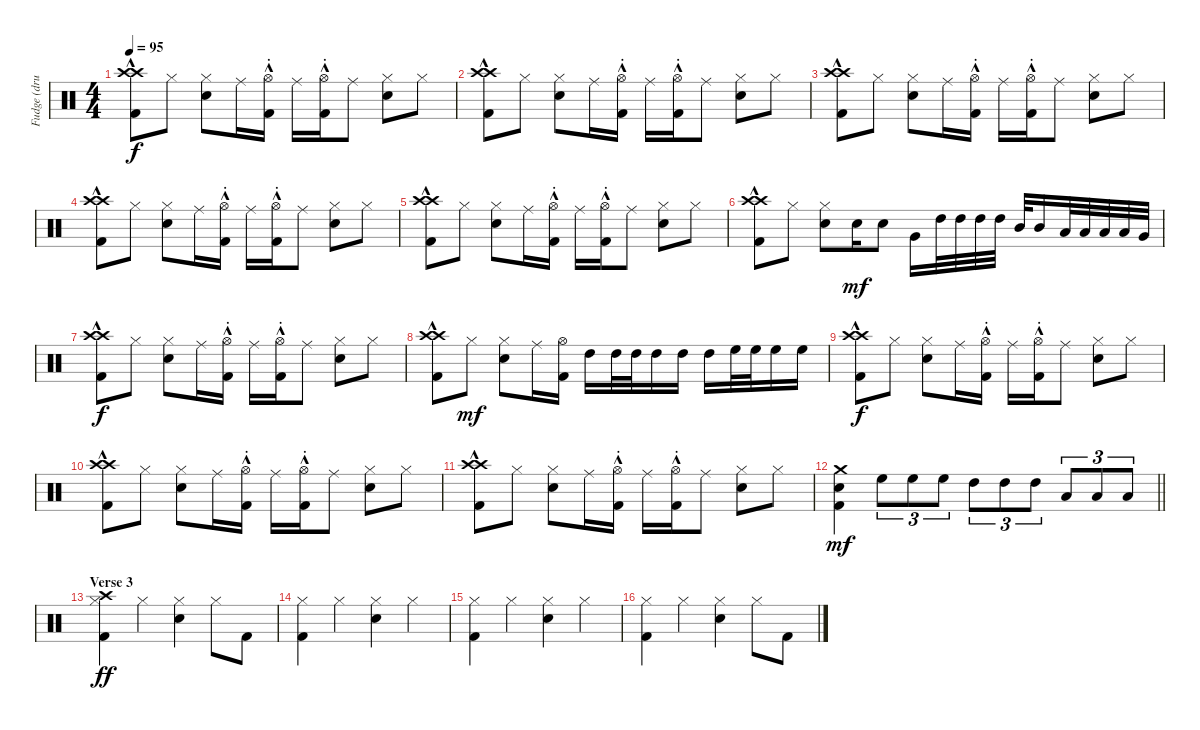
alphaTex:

\track ("Fudge (drums)" "Fudge (dru") {instrument percussion}
\staff {score}
\articulation defaults
\ts (4 4)
\tempo 95
\clef neutral
\ks c
("Kick (hit) 2"{hac} "Crash high (hit)" "Crash high (hit)").8{dy f} "Hi-Hat (closed)".8 ("Electric Snare (hit)" "Hi-Hat (closed)").8 "Ride (middle)".16 ("Kick (hit) 2"{hac} "Hi-Hat (open)"{hac st}).16 "Ride (middle)".16 ("Kick (hit) 2"{hac} "Hi-Hat (open)"{hac st}).16 "Ride (middle)".8 ("Electric Snare (hit)" "Hi-Hat (closed)").8 "Hi-Hat (closed)".8 |
("Kick (hit) 2"{hac} "Crash high (hit)" "Crash high (hit)").8 "Hi-Hat (closed)".8 ("Electric Snare (hit)" "Hi-Hat (closed)").8 "Ride (middle)".16 ("Kick (hit) 2"{hac} "Hi-Hat (open)"{hac st}).16 "Ride (middle)".16 ("Kick (hit) 2"{hac} "Hi-Hat (open)"{hac st}).16 "Ride (middle)".8 ("Electric Snare (hit)" "Hi-Hat (closed)").8 "Hi-Hat (closed)".8 |
("Kick (hit) 2"{hac} "Crash high (hit)" "Crash high (hit)").8 "Hi-Hat (closed)".8 ("Electric Snare (hit)" "Hi-Hat (closed)").8 "Ride (middle)".16 ("Kick (hit) 2"{hac} "Hi-Hat (open)"{hac st}).16 "Ride (middle)".16 ("Kick (hit) 2"{hac} "Hi-Hat (open)"{hac st}).16 "Ride (middle)".8 ("Electric Snare (hit)" "Hi-Hat (closed)").8 "Hi-Hat (closed)".8 |
("Kick (hit) 2"{hac} "Crash high (hit)" "Crash high (hit)").8 "Hi-Hat (closed)".8 ("Electric Snare (hit)" "Hi-Hat (closed)").8 "Ride (middle)".16 ("Kick (hit) 2"{hac} "Hi-Hat (open)"{hac st}).16 "Ride (middle)".16 ("Kick (hit) 2"{hac} "Hi-Hat (open)"{hac st}).16 "Ride (middle)".8 ("Electric Snare (hit)" "Hi-Hat (closed)").8 "Hi-Hat (closed)".8 |
("Kick (hit) 2"{hac} "Crash high (hit)" "Crash high (hit)").8 "Hi-Hat (closed)".8 ("Electric Snare (hit)" "Hi-Hat (closed)").8 "Ride (middle)".16 ("Kick (hit) 2"{hac} "Hi-Hat (open)"{hac st}).16 "Ride (middle)".16 ("Kick (hit) 2"{hac} "Hi-Hat (open)"{hac st}).16 "Ride (middle)".8 ("Electric Snare (hit)" "Hi-Hat (closed)").8 "Hi-Hat (closed)".8 |
("Kick (hit) 2"{hac} "Crash high (hit)" "Crash high (hit)").8 "Hi-Hat (closed)".8 ("Electric Snare (hit)" "Hi-Hat (closed)").8 "Snare (hit) 2".16{dy mf} "Snare (hit) 2".8 "Very Low Tom (hit)".16 "High Tom (hit)".32 "High Tom (hit)".32 "High Tom (hit)".32 "High Tom (hit)".32 "Mid Tom (hit)".32 "Mid Tom (hit)".16 "Low Tom (hit)".32 "Low Tom (hit)".32 "Low Tom (hit)".32 "Low Tom (hit)".32 "Very Low Tom (hit)".32 |
("Kick (hit) 2"{hac} "Crash high (hit)" "Crash high (hit)").8{dy f} "Hi-Hat (closed)".8 ("Electric Snare (hit)" "Hi-Hat (closed)").8 "Ride (middle)".16 ("Kick (hit) 2"{hac} "Hi-Hat (open)"{hac st}).16 "Ride (middle)".16 ("Kick (hit) 2"{hac} "Hi-Hat (open)"{hac st}).16 "Ride (middle)".8 ("Electric Snare (hit)" "Hi-Hat (closed)").8 "Hi-Hat (closed)".8 |
("Kick (hit) 2"{hac} "Crash high (hit)" "Crash high (hit)").8 "Hi-Hat (closed)".8{dy mf} ("Electric Snare (hit)" "Hi-Hat (closed)").8 "Ride (middle)".16 ("Kick (hit) 2" "Hi-Hat (open)").16 "High Tom (hit)".16 "High Tom (hit)".32 "High Tom (hit)".32 "High Tom (hit)".16 "High Tom (hit)".16 "High Tom (hit)".16 "High Floor Tom (hit)".32 "High Floor Tom (hit)".32 "High Floor Tom (hit)".16 "High Floor Tom (hit)".16 |
("Kick (hit) 2"{hac} "Crash high (hit)" "Crash high (hit)").8{dy f} "Hi-Hat (closed)".8 ("Electric Snare (hit)" "Hi-Hat (closed)").8 "Ride (middle)".16 ("Kick (hit) 2"{hac} "Hi-Hat (open)"{hac st}).16 "Ride (middle)".16 ("Kick (hit) 2"{hac} "Hi-Hat (open)"{hac st}).16 "Ride (middle)".8 ("Electric Snare (hit)" "Hi-Hat (closed)").8 "Hi-Hat (closed)".8 |
("Kick (hit) 2"{hac} "Crash high (hit)" "Crash high (hit)").8 "Hi-Hat (closed)".8 ("Electric Snare (hit)" "Hi-Hat (closed)").8 "Ride (middle)".16 ("Kick (hit) 2"{hac} "Hi-Hat (open)"{hac st}).16 "Ride (middle)".16 ("Kick (hit) 2"{hac} "Hi-Hat (open)"{hac st}).16 "Ride (middle)".8 ("Electric Snare (hit)" "Hi-Hat (closed)").8 "Hi-Hat (closed)".8 |
("Kick (hit) 2"{hac} "Crash high (hit)" "Crash high (hit)").8 "Hi-Hat (closed)".8 ("Electric Snare (hit)" "Hi-Hat (closed)").8 "Ride (middle)".16 ("Kick (hit) 2"{hac} "Hi-Hat (open)"{hac st}).16 "Ride (middle)".16 ("Kick (hit) 2"{hac} "Hi-Hat (open)"{hac st}).16 "Ride (middle)".8 ("Electric Snare (hit)" "Hi-Hat (closed)").8 "Hi-Hat (closed)".8 |
\barLineRight lightlight
("Kick (hit) 2" "Crash medium (hit)" "Electric Snare (hit)").4{dy mf} "High Floor Tom (hit)".8{tu (3 2)} "High Floor Tom (hit)".8{tu (3 2)} "High Floor Tom (hit)".8{tu (3 2)} "High Tom (hit)".8{tu (3 2)} "High Tom (hit)".8{tu (3 2)} "High Tom (hit)".8{tu (3 2)} "Low Tom (hit)".8{tu (3 2)} "Low Tom (hit)".8{tu (3 2)} "Low Tom (hit)".8{tu (3 2)} |
\section ("" "Verse 3")
("Kick (hit) 2" "Hi-Hat (closed)" "Crash high (hit)").4{dy ff} "Hi-Hat (closed)".4 ("Electric Snare (hit)" "Hi-Hat (closed)").4 "Hi-Hat (closed)".8 "Kick (hit) 2".8 |
("Kick (hit) 2" "Hi-Hat (closed)").4 "Hi-Hat (closed)".4 ("Electric Snare (hit)" "Hi-Hat (closed)").4 "Hi-Hat (closed)".4 |
("Kick (hit) 2" "Hi-Hat (closed)").4 "Hi-Hat (closed)".4 ("Electric Snare (hit)" "Hi-Hat (closed)").4 "Hi-Hat (closed)".4 |
("Kick (hit) 2" "Hi-Hat (closed)").4 "Hi-Hat (closed)".4 ("Electric Snare (hit)" "Hi-Hat (closed)").4 "Hi-Hat (closed)".8 "Kick (hit) 2".8
